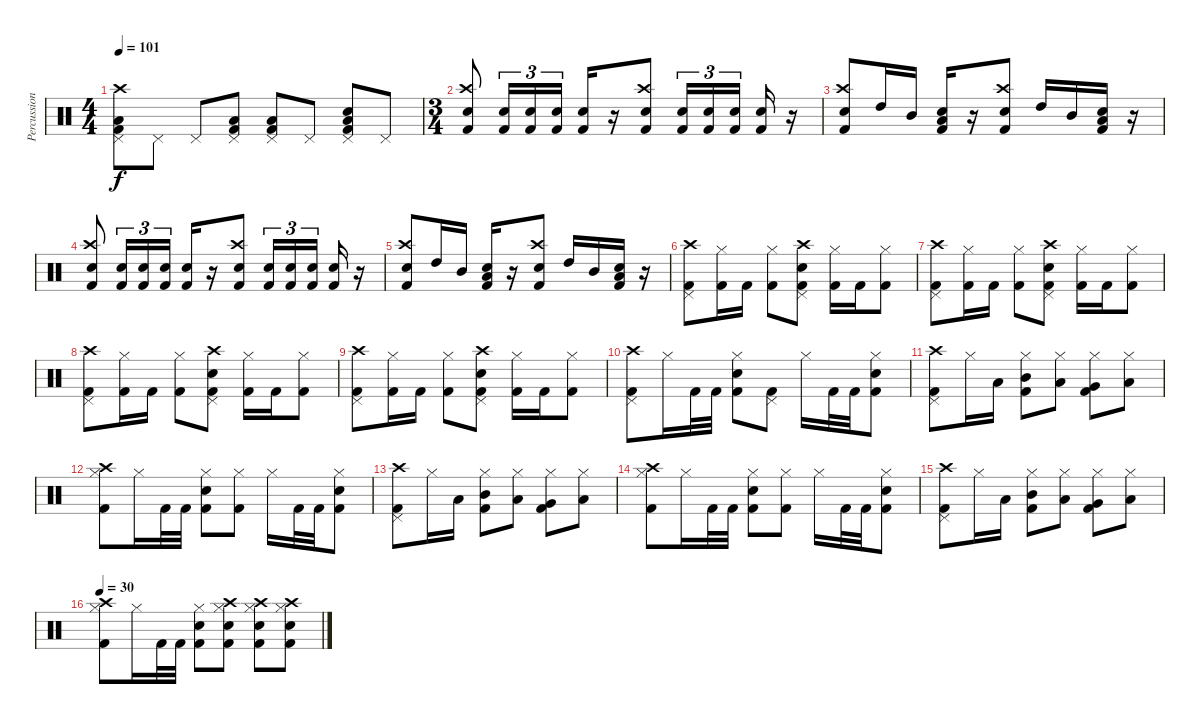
\track ("Percussion" "Percussion") {instrument percussion}
\staff {score}
\articulation defaults
\ts (4 4)
\tempo 101
\clef neutral
\ks c
("Kick (hit) 2" "Low Floor Tom (hit)" "Pedal Hi-Hat (hit)" "Crash high (hit)").8{dy f} "Pedal Hi-Hat (hit)".8 "Pedal Hi-Hat (hit)".8 ("Kick (hit) 2" "Low Floor Tom (hit)" "Pedal Hi-Hat (hit)").8 ("Kick (hit) 2" "Low Floor Tom (hit)" "Pedal Hi-Hat (hit)").8 "Pedal Hi-Hat (hit)".8 ("Kick (hit) 2" "Snare (hit) 2" "Low Floor Tom (hit)" "Pedal Hi-Hat (hit)").8 "Pedal Hi-Hat (hit)".8 |
\ts (3 4)
("Kick (hit) 2" "Snare (hit) 2" "Crash high (hit)").8 ("Kick (hit) 2" "Snare (hit) 2").16{tu (3 2)} ("Kick (hit) 2" "Snare (hit) 2").16{tu (3 2)} ("Kick (hit) 2" "Snare (hit) 2").16{tu (3 2)} ("Kick (hit) 2" "Snare (hit) 2").16 r.16 ("Kick (hit) 2" "Snare (hit) 2" "Crash high (hit)").8 ("Kick (hit) 2" "Snare (hit) 2").16{tu (3 2)} ("Kick (hit) 2" "Snare (hit) 2").16{tu (3 2)} ("Kick (hit) 2" "Snare (hit) 2").16{tu (3 2)} ("Kick (hit) 2" "Snare (hit) 2").16 r.16 |
("Kick (hit) 2" "Snare (hit) 2" "Crash high (hit)").8 "High Tom (hit)".16 "Mid Tom (hit)".16 ("Kick (hit) 2" "Snare (hit) 2" "Low Tom (hit)").16 r.16 ("Kick (hit) 2" "Snare (hit) 2" "Crash high (hit)").8 "High Tom (hit)".16 "Mid Tom (hit)".16 ("Kick (hit) 2" "Snare (hit) 2" "Low Tom (hit)").16 r.16 |
("Kick (hit) 2" "Snare (hit) 2" "Crash high (hit)").8 ("Kick (hit) 2" "Snare (hit) 2").16{tu (3 2)} ("Kick (hit) 2" "Snare (hit) 2").16{tu (3 2)} ("Kick (hit) 2" "Snare (hit) 2").16{tu (3 2)} ("Kick (hit) 2" "Snare (hit) 2").16 r.16 ("Kick (hit) 2" "Snare (hit) 2" "Crash high (hit)").8 ("Kick (hit) 2" "Snare (hit) 2").16{tu (3 2)} ("Kick (hit) 2" "Snare (hit) 2").16{tu (3 2)} ("Kick (hit) 2" "Snare (hit) 2").16{tu (3 2)} ("Kick (hit) 2" "Snare (hit) 2").16 r.16 |
("Kick (hit) 2" "Snare (hit) 2" "Crash high (hit)").8 "High Tom (hit)".16 "Mid Tom (hit)".16 ("Kick (hit) 2" "Snare (hit) 2" "Low Tom (hit)").16 r.16 ("Kick (hit) 2" "Snare (hit) 2" "Crash high (hit)").8 "High Tom (hit)".16 "Mid Tom (hit)".16 ("Kick (hit) 2" "Snare (hit) 2" "Low Tom (hit)").16 r.16 |
("Kick (hit) 2" "Pedal Hi-Hat (hit)" "Crash high (hit)").8 ("Kick (hit) 2" "Hi-Hat (closed)").16 "Kick (hit) 2".16 ("Kick (hit) 2" "Hi-Hat (closed)").8 ("Kick (hit) 2" "Snare (hit) 2" "Pedal Hi-Hat (hit)" "Crash high (hit)").8 ("Kick (hit) 2" "Hi-Hat (closed)").16 "Kick (hit) 2".16 ("Kick (hit) 2" "Hi-Hat (closed)").8 |
("Kick (hit) 2" "Pedal Hi-Hat (hit)" "Crash high (hit)").8 ("Kick (hit) 2" "Hi-Hat (closed)").16 "Kick (hit) 2".16 ("Kick (hit) 2" "Hi-Hat (closed)").8 ("Kick (hit) 2" "Snare (hit) 2" "Pedal Hi-Hat (hit)" "Crash high (hit)").8 ("Kick (hit) 2" "Hi-Hat (closed)").16 "Kick (hit) 2".16 ("Kick (hit) 2" "Hi-Hat (closed)").8 |
("Kick (hit) 2" "Pedal Hi-Hat (hit)" "Crash high (hit)").8 ("Kick (hit) 2" "Hi-Hat (closed)").16 "Kick (hit) 2".16 ("Kick (hit) 2" "Hi-Hat (closed)").8 ("Kick (hit) 2" "Snare (hit) 2" "Pedal Hi-Hat (hit)" "Crash high (hit)").8 ("Kick (hit) 2" "Hi-Hat (closed)").16 "Kick (hit) 2".16 ("Kick (hit) 2" "Hi-Hat (closed)").8 |
("Kick (hit) 2" "Pedal Hi-Hat (hit)" "Crash high (hit)").8 ("Kick (hit) 2" "Hi-Hat (closed)").16 "Kick (hit) 2".16 ("Kick (hit) 2" "Hi-Hat (closed)").8 ("Kick (hit) 2" "Snare (hit) 2" "Pedal Hi-Hat (hit)" "Crash high (hit)").8 ("Kick (hit) 2" "Hi-Hat (closed)").16 "Kick (hit) 2".16 ("Kick (hit) 2" "Hi-Hat (closed)").8 |
("Kick (hit) 2" "Pedal Hi-Hat (hit)" "Crash high (hit)").8 "Hi-Hat (closed)".16 "Kick (hit) 2".32 "Kick (hit) 2".32 ("Kick (hit) 2" "Snare (hit) 2" "Hi-Hat (closed)").8 ("Kick (hit) 2" "Pedal Hi-Hat (hit)").8 "Hi-Hat (closed)".16 "Kick (hit) 2".32 "Kick (hit) 2".32 ("Kick (hit) 2" "Snare (hit) 2" "Hi-Hat (closed)").8 |
("Kick (hit) 2" "Pedal Hi-Hat (hit)" "Crash high (hit)").8 "Hi-Hat (closed)".16 "Low Tom (hit)".16 ("Kick (hit) 2" "Hi-Hat (closed)" "Mid Tom (hit)").8 ("Hi-Hat (closed)" "Low Tom (hit)").8 ("Kick (hit) 2" "Hi-Hat (closed)" "Very Low Tom (hit)").8 ("Low Floor Tom (hit)" "Hi-Hat (closed)").8 |
("Kick (hit) 2" "Hi-Hat (closed)" "Crash high (hit)").8 "Hi-Hat (closed)".16 "Kick (hit) 2".32 "Kick (hit) 2".32 ("Kick (hit) 2" "Snare (hit) 2" "Hi-Hat (closed)").8 ("Kick (hit) 2" "Hi-Hat (closed)").8 "Hi-Hat (closed)".16 "Kick (hit) 2".32 "Kick (hit) 2".32 ("Kick (hit) 2" "Snare (hit) 2" "Hi-Hat (closed)").8 |
("Kick (hit) 2" "Pedal Hi-Hat (hit)" "Crash high (hit)").8 "Hi-Hat (closed)".16 "Low Tom (hit)".16 ("Kick (hit) 2" "Hi-Hat (closed)" "Mid Tom (hit)").8 ("Hi-Hat (closed)" "Low Tom (hit)").8 ("Kick (hit) 2" "Hi-Hat (closed)" "Very Low Tom (hit)").8 ("Low Floor Tom (hit)" "Hi-Hat (closed)").8 |
("Kick (hit) 2" "Hi-Hat (closed)" "Crash high (hit)").8 "Hi-Hat (closed)".16 "Kick (hit) 2".32 "Kick (hit) 2".32 ("Kick (hit) 2" "Snare (hit) 2" "Hi-Hat (closed)").8 ("Kick (hit) 2" "Hi-Hat (closed)").8 "Hi-Hat (closed)".16 "Kick (hit) 2".32 "Kick (hit) 2".32 ("Kick (hit) 2" "Snare (hit) 2" "Hi-Hat (closed)").8 |
("Kick (hit) 2" "Pedal Hi-Hat (hit)" "Crash high (hit)").8 "Hi-Hat (closed)".16 "Low Tom (hit)".16 ("Kick (hit) 2" "Hi-Hat (closed)" "Mid Tom (hit)").8 ("Hi-Hat (closed)" "Low Tom (hit)").8 ("Kick (hit) 2" "Hi-Hat (closed)" "Very Low Tom (hit)").8 ("Low Floor Tom (hit)" "Hi-Hat (closed)").8 |
\tempo 30
("Kick (hit) 2" "Hi-Hat (closed)" "Crash high (hit)").8 "Hi-Hat (closed)".16 "Kick (hit) 2".32 "Kick (hit) 2".32 ("Kick (hit) 2" "Snare (hit) 2" "Hi-Hat (closed)").8 ("Kick (hit) 2" "Snare (hit) 2" "Hi-Hat (closed)" "Crash high (hit)").8 ("Kick (hit) 2" "Snare (hit) 2" "Hi-Hat (closed)" "Crash high (hit)").8 ("Kick (hit) 2" "Snare (hit) 2" "Hi-Hat (closed)" "Crash high (hit)").8
